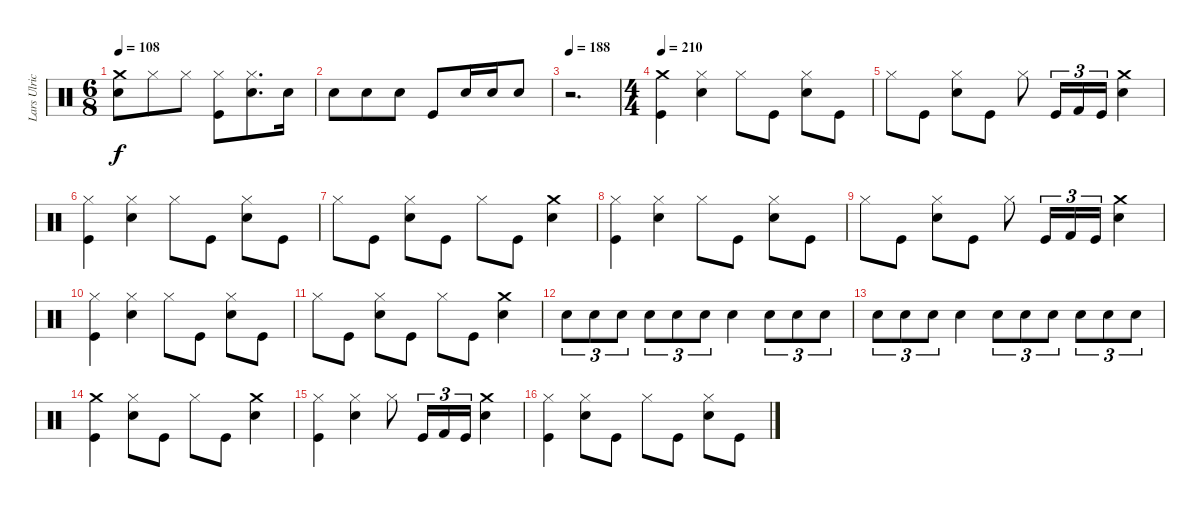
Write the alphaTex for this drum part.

\track ("Lars Ulrich (Drums)" "Lars Ulric") {instrument percussion}
\staff {score}
\articulation defaults
\ts (6 8)
\tempo 108
\clef neutral
\ks c
("Crash medium (hit)" "Snare (hit) 2").8{dy f} "Hi-Hat (closed)".8 "Hi-Hat (closed)".8 ("Kick (hit)" "Hi-Hat (closed)").8 ("Hi-Hat (closed)" "Snare (hit) 2").8{d} "Snare (hit) 2".16 |
"Snare (hit) 2".8 "Snare (hit) 2".8 "Snare (hit) 2".8 "Kick (hit)".8 "Snare (hit) 2".16 "Snare (hit) 2".16 "Snare (hit) 2".8 |
\tempo 188
r.2{d} |
\ts (4 4)
\tempo 210
("Crash medium (hit)" "Kick (hit)").4 ("Hi-Hat (closed)" "Snare (hit) 2").4 "Hi-Hat (closed)".8 "Kick (hit)".8 ("Snare (hit) 2" "Hi-Hat (closed)").8 "Kick (hit)".8 |
"Hi-Hat (closed)".8 "Kick (hit)".8 ("Snare (hit) 2" "Hi-Hat (closed)").8 "Kick (hit)".8 "Hi-Hat (closed)".8 "Kick (hit)".16{tu (3 2)} "Kick (hit) 2".16{tu (3 2)} "Kick (hit)".16{tu (3 2)} ("Crash medium (hit)" "Snare (hit) 2").4 |
("Kick (hit)" "Hi-Hat (closed)").4 ("Hi-Hat (closed)" "Snare (hit) 2").4 "Hi-Hat (closed)".8 "Kick (hit)".8 ("Snare (hit) 2" "Hi-Hat (closed)").8 "Kick (hit)".8 |
"Hi-Hat (closed)".8 "Kick (hit)".8 ("Snare (hit) 2" "Hi-Hat (closed)").8 "Kick (hit)".8 "Hi-Hat (closed)".8 "Kick (hit)".8 ("Crash medium (hit)" "Snare (hit) 2").4 |
("Hi-Hat (closed)" "Kick (hit)").4 ("Snare (hit) 2" "Hi-Hat (closed)").4 "Hi-Hat (closed)".8 "Kick (hit)".8 ("Snare (hit) 2" "Hi-Hat (closed)").8 "Kick (hit)".8 |
"Hi-Hat (closed)".8 "Kick (hit)".8 ("Snare (hit) 2" "Hi-Hat (closed)").8 "Kick (hit)".8 "Hi-Hat (closed)".8 "Kick (hit)".16{tu (3 2)} "Kick (hit) 2".16{tu (3 2)} "Kick (hit)".16{tu (3 2)} ("Crash medium (hit)" "Snare (hit) 2").4 |
("Kick (hit)" "Hi-Hat (closed)").4 ("Snare (hit) 2" "Hi-Hat (closed)").4 "Hi-Hat (closed)".8 "Kick (hit)".8 ("Snare (hit) 2" "Hi-Hat (closed)").8 "Kick (hit)".8 |
"Hi-Hat (closed)".8 "Kick (hit)".8 ("Snare (hit) 2" "Hi-Hat (closed)").8 "Kick (hit)".8 "Hi-Hat (closed)".8 "Kick (hit)".8 ("Crash medium (hit)" "Snare (hit) 2").4 |
"Snare (hit) 2".8{tu (3 2)} "Snare (hit) 2".8{tu (3 2)} "Snare (hit) 2".8{tu (3 2)} "Snare (hit) 2".8{tu (3 2)} "Snare (hit) 2".8{tu (3 2)} "Snare (hit) 2".8{tu (3 2)} "Snare (hit) 2".4 "Snare (hit) 2".8{tu (3 2)} "Snare (hit) 2".8{tu (3 2)} "Snare (hit) 2".8{tu (3 2)} |
"Snare (hit) 2".8{tu (3 2)} "Snare (hit) 2".8{tu (3 2)} "Snare (hit) 2".8{tu (3 2)} "Snare (hit) 2".4 "Snare (hit) 2".8{tu (3 2)} "Snare (hit) 2".8{tu (3 2)} "Snare (hit) 2".8{tu (3 2)} "Snare (hit) 2".8{tu (3 2)} "Snare (hit) 2".8{tu (3 2)} "Snare (hit) 2".8{tu (3 2)} |
("Kick (hit)" "Crash medium (hit)").4 ("Hi-Hat (closed)" "Snare (hit) 2").8 "Kick (hit)".8 "Hi-Hat (closed)".8 "Kick (hit)".8 ("Crash medium (hit)" "Snare (hit) 2").4 |
("Hi-Hat (closed)" "Kick (hit)").4 ("Snare (hit) 2" "Hi-Hat (closed)").4 "Hi-Hat (closed)".8 "Kick (hit)".16{tu (3 2)} "Kick (hit) 2".16{tu (3 2)} "Kick (hit)".16{tu (3 2)} ("Crash medium (hit)" "Snare (hit) 2").4 |
("Hi-Hat (closed)" "Kick (hit)").4 ("Snare (hit) 2" "Hi-Hat (closed)").8 "Kick (hit)".8 "Hi-Hat (closed)".8 "Kick (hit)".8 ("Snare (hit) 2" "Hi-Hat (closed)").8 "Kick (hit)".8
